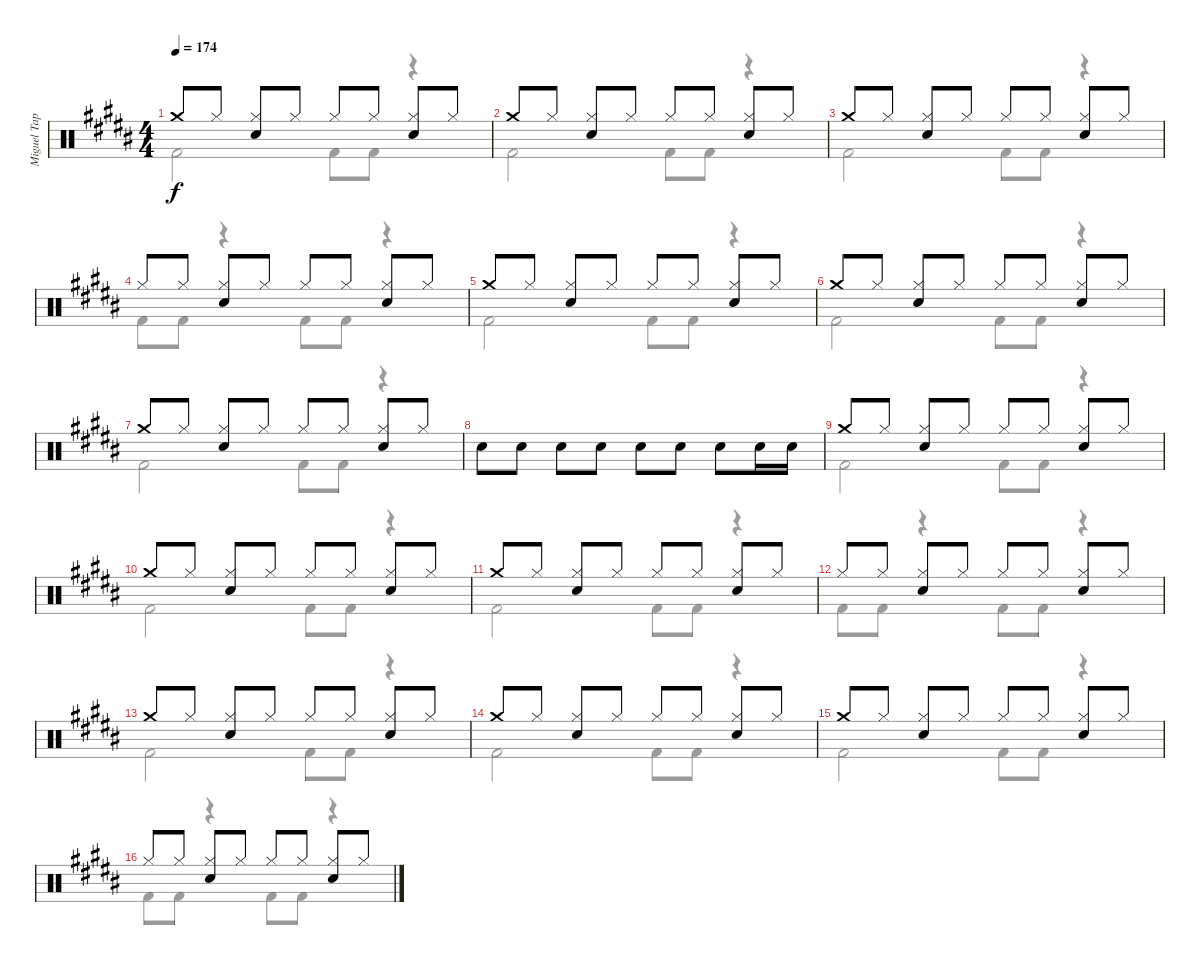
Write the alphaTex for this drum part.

\track ("Miguel Tapia" "Miguel Tap") {instrument percussion}
\staff {score}
\articulation defaults
\voice
\ts (4 4)
\tempo 174
\clef neutral
\ks b "Crash medium (hit)".8{dy f} "Hi-Hat (closed)".8
("Hi-Hat (closed)" "Snare (hit) 2").8 "Hi-Hat (closed)".8 "Hi-Hat (closed)".8 "Hi-Hat (closed)".8 ("Hi-Hat (closed)" "Snare (hit) 2").8 "Hi-Hat (closed)".8 |
"Crash medium (hit)".8 "Hi-Hat (closed)".8 ("Hi-Hat (closed)" "Snare (hit) 2").8 "Hi-Hat (closed)".8 "Hi-Hat (closed)".8 "Hi-Hat (closed)".8 ("Hi-Hat (closed)" "Snare (hit) 2").8 "Hi-Hat (closed)".8 |
"Crash medium (hit)".8 "Hi-Hat (closed)".8 ("Hi-Hat (closed)" "Snare (hit) 2").8 "Hi-Hat (closed)".8 "Hi-Hat (closed)".8 "Hi-Hat (closed)".8 ("Hi-Hat (closed)" "Snare (hit) 2").8 "Hi-Hat (closed)".8 |
"Hi-Hat (closed)".8 "Hi-Hat (closed)".8 ("Hi-Hat (closed)" "Snare (hit) 2").8 "Hi-Hat (closed)".8 "Hi-Hat (closed)".8 "Hi-Hat (closed)".8 ("Hi-Hat (closed)" "Snare (hit) 2").8 "Hi-Hat (closed)".8 |
"Crash medium (hit)".8 "Hi-Hat (closed)".8 ("Hi-Hat (closed)" "Snare (hit) 2").8 "Hi-Hat (closed)".8 "Hi-Hat (closed)".8 "Hi-Hat (closed)".8 ("Hi-Hat (closed)" "Snare (hit) 2").8 "Hi-Hat (closed)".8 |
"Crash medium (hit)".8 "Hi-Hat (closed)".8 ("Hi-Hat (closed)" "Snare (hit) 2").8 "Hi-Hat (closed)".8 "Hi-Hat (closed)".8 "Hi-Hat (closed)".8 ("Hi-Hat (closed)" "Snare (hit) 2").8 "Hi-Hat (closed)".8 |
"Crash medium (hit)".8 "Hi-Hat (closed)".8 ("Hi-Hat (closed)" "Snare (hit) 2").8 "Hi-Hat (closed)".8 "Hi-Hat (closed)".8 "Hi-Hat (closed)".8 ("Hi-Hat (closed)" "Snare (hit) 2").8 "Hi-Hat (closed)".8 |
"Snare (hit) 2".8 "Snare (hit) 2".8 "Snare (hit) 2".8 "Snare (hit) 2".8 "Snare (hit) 2".8 "Snare (hit) 2".8 "Snare (hit) 2".8 "Snare (hit) 2".16 "Snare (hit) 2".16 |
"Crash medium (hit)".8 "Hi-Hat (closed)".8 ("Hi-Hat (closed)" "Snare (hit) 2").8 "Hi-Hat (closed)".8 "Hi-Hat (closed)".8 "Hi-Hat (closed)".8 ("Hi-Hat (closed)" "Snare (hit) 2").8 "Hi-Hat (closed)".8 |
"Crash medium (hit)".8 "Hi-Hat (closed)".8 ("Hi-Hat (closed)" "Snare (hit) 2").8 "Hi-Hat (closed)".8 "Hi-Hat (closed)".8 "Hi-Hat (closed)".8 ("Hi-Hat (closed)" "Snare (hit) 2").8 "Hi-Hat (closed)".8 |
"Crash medium (hit)".8 "Hi-Hat (closed)".8 ("Hi-Hat (closed)" "Snare (hit) 2").8 "Hi-Hat (closed)".8 "Hi-Hat (closed)".8 "Hi-Hat (closed)".8 ("Hi-Hat (closed)" "Snare (hit) 2").8 "Hi-Hat (closed)".8 |
"Hi-Hat (closed)".8 "Hi-Hat (closed)".8 ("Hi-Hat (closed)" "Snare (hit) 2").8 "Hi-Hat (closed)".8 "Hi-Hat (closed)".8 "Hi-Hat (closed)".8 ("Hi-Hat (closed)" "Snare (hit) 2").8 "Hi-Hat (closed)".8 |
"Crash medium (hit)".8 "Hi-Hat (closed)".8 ("Hi-Hat (closed)" "Snare (hit) 2").8 "Hi-Hat (closed)".8 "Hi-Hat (closed)".8 "Hi-Hat (closed)".8 ("Hi-Hat (closed)" "Snare (hit) 2").8 "Hi-Hat (closed)".8 |
"Crash medium (hit)".8 "Hi-Hat (closed)".8 ("Hi-Hat (closed)" "Snare (hit) 2").8 "Hi-Hat (closed)".8 "Hi-Hat (closed)".8 "Hi-Hat (closed)".8 ("Hi-Hat (closed)" "Snare (hit) 2").8 "Hi-Hat (closed)".8 |
"Crash medium (hit)".8 "Hi-Hat (closed)".8 ("Hi-Hat (closed)" "Snare (hit) 2").8 "Hi-Hat (closed)".8 "Hi-Hat (closed)".8 "Hi-Hat (closed)".8 ("Hi-Hat (closed)" "Snare (hit) 2").8 "Hi-Hat (closed)".8 |
"Hi-Hat (closed)".8 "Hi-Hat (closed)".8 ("Hi-Hat (closed)" "Snare (hit) 2").8 "Hi-Hat (closed)".8 "Hi-Hat (closed)".8 "Hi-Hat (closed)".8 ("Hi-Hat (closed)" "Snare (hit) 2").8 "Hi-Hat (closed)".8
\voice
\clef neutral
\ottava regular
\simile none
\ks b "Kick (hit) 2".2{dy f} "Kick (hit) 2".8 "Kick (hit) 2".8
r.4 |
"Kick (hit) 2".2 "Kick (hit) 2".8 "Kick (hit) 2".8 r.4 |
"Kick (hit) 2".2 "Kick (hit) 2".8 "Kick (hit) 2".8 r.4 |
"Kick (hit) 2".8 "Kick (hit) 2".8 r.4 "Kick (hit) 2".8 "Kick (hit) 2".8 r.4 |
"Kick (hit) 2".2 "Kick (hit) 2".8 "Kick (hit) 2".8 r.4 |
"Kick (hit) 2".2 "Kick (hit) 2".8 "Kick (hit) 2".8 r.4 |
"Kick (hit) 2".2 "Kick (hit) 2".8 "Kick (hit) 2".8 r.4 |
|
"Kick (hit) 2".2 "Kick (hit) 2".8 "Kick (hit) 2".8 r.4 |
"Kick (hit) 2".2 "Kick (hit) 2".8 "Kick (hit) 2".8 r.4 |
"Kick (hit) 2".2 "Kick (hit) 2".8 "Kick (hit) 2".8 r.4 |
"Kick (hit) 2".8 "Kick (hit) 2".8 r.4 "Kick (hit) 2".8 "Kick (hit) 2".8 r.4 |
"Kick (hit) 2".2 "Kick (hit) 2".8 "Kick (hit) 2".8 r.4 |
"Kick (hit) 2".2 "Kick (hit) 2".8 "Kick (hit) 2".8 r.4 |
"Kick (hit) 2".2 "Kick (hit) 2".8 "Kick (hit) 2".8 r.4 |
"Kick (hit) 2".8 "Kick (hit) 2".8 r.4 "Kick (hit) 2".8 "Kick (hit) 2".8 r.4
